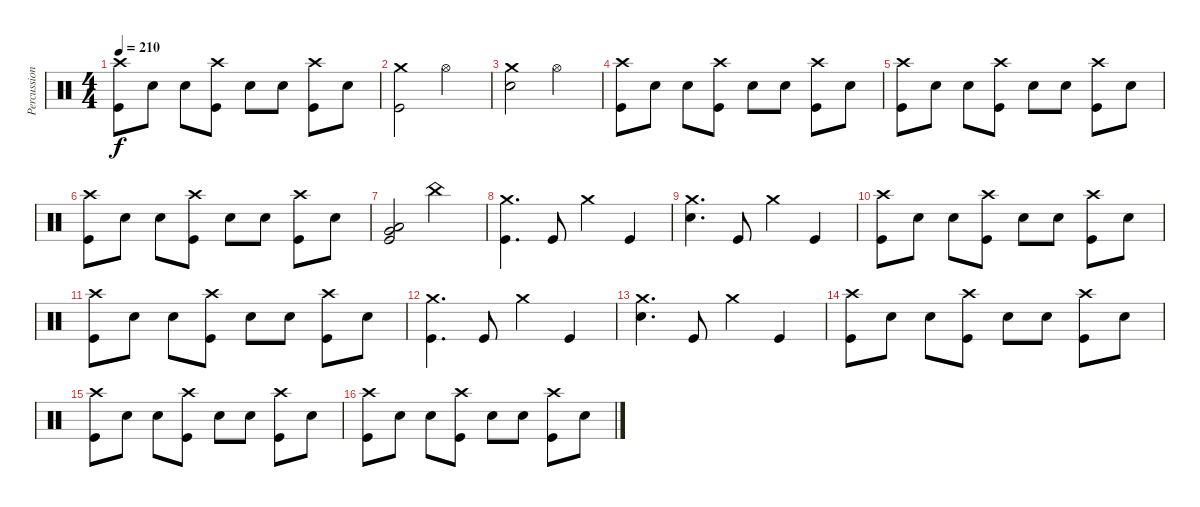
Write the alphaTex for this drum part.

\track ("Percussion" "Percussion") {instrument percussion}
\staff {score}
\articulation defaults
\ts (4 4)
\tempo 210
\clef neutral
\ks c
("Crash high (hit)" "Kick (hit)").8{dy f} "Snare (hit) 2".8 "Snare (hit) 2".8 ("Crash high (hit)" "Kick (hit)").8 "Snare (hit) 2".8 "Snare (hit) 2".8 ("Crash high (hit)" "Kick (hit)").8 "Snare (hit) 2".8 |
("Crash medium (hit)" "Kick (hit)").2 "Hi-Hat (open)".2 |
("Crash medium (hit)" "Snare (hit) 2").2 "Hi-Hat (open)".2 |
("Crash high (hit)" "Kick (hit)").8 "Snare (hit) 2".8 "Snare (hit) 2".8 ("Crash high (hit)" "Kick (hit)").8 "Snare (hit) 2".8 "Snare (hit) 2".8 ("Crash high (hit)" "Kick (hit)").8 "Snare (hit) 2".8 |
("Crash high (hit)" "Kick (hit)").8 "Snare (hit) 2".8 "Snare (hit) 2".8 ("Crash high (hit)" "Kick (hit)").8 "Snare (hit) 2".8 "Snare (hit) 2".8 ("Crash high (hit)" "Kick (hit)").8 "Snare (hit) 2".8 |
("Crash high (hit)" "Kick (hit)").8 "Snare (hit) 2".8 "Snare (hit) 2".8 ("Crash high (hit)" "Kick (hit)").8 "Snare (hit) 2".8 "Snare (hit) 2".8 ("Crash high (hit)" "Kick (hit)").8 "Snare (hit) 2".8 |
("Low Tom (hit)" "Very Low Tom (hit)" "Kick (hit)").2 "China (hit)".2 |
("Crash medium (hit)" "Kick (hit)").4{d} "Kick (hit)".8 "Crash medium (hit)".4 "Kick (hit)".4 |
("Crash medium (hit)" "Snare (hit) 2").4{d} "Kick (hit)".8 "Crash medium (hit)".4 "Kick (hit)".4 |
("Crash high (hit)" "Kick (hit)").8 "Snare (hit) 2".8 "Snare (hit) 2".8 ("Crash high (hit)" "Kick (hit)").8 "Snare (hit) 2".8 "Snare (hit) 2".8 ("Crash high (hit)" "Kick (hit)").8 "Snare (hit) 2".8 |
("Crash high (hit)" "Kick (hit)").8 "Snare (hit) 2".8 "Snare (hit) 2".8 ("Crash high (hit)" "Kick (hit)").8 "Snare (hit) 2".8 "Snare (hit) 2".8 ("Crash high (hit)" "Kick (hit)").8 "Snare (hit) 2".8 |
("Crash medium (hit)" "Kick (hit)").4{d} "Kick (hit)".8 "Crash medium (hit)".4 "Kick (hit)".4 |
("Crash medium (hit)" "Snare (hit) 2").4{d} "Kick (hit)".8 "Crash medium (hit)".4 "Kick (hit)".4 |
("Crash high (hit)" "Kick (hit)").8 "Snare (hit) 2".8 "Snare (hit) 2".8 ("Crash high (hit)" "Kick (hit)").8 "Snare (hit) 2".8 "Snare (hit) 2".8 ("Crash high (hit)" "Kick (hit)").8 "Snare (hit) 2".8 |
("Crash high (hit)" "Kick (hit)").8 "Snare (hit) 2".8 "Snare (hit) 2".8 ("Crash high (hit)" "Kick (hit)").8 "Snare (hit) 2".8 "Snare (hit) 2".8 ("Crash high (hit)" "Kick (hit)").8 "Snare (hit) 2".8 |
("Crash high (hit)" "Kick (hit)").8 "Snare (hit) 2".8 "Snare (hit) 2".8 ("Crash high (hit)" "Kick (hit)").8 "Snare (hit) 2".8 "Snare (hit) 2".8 ("Crash high (hit)" "Kick (hit)").8 "Snare (hit) 2".8
